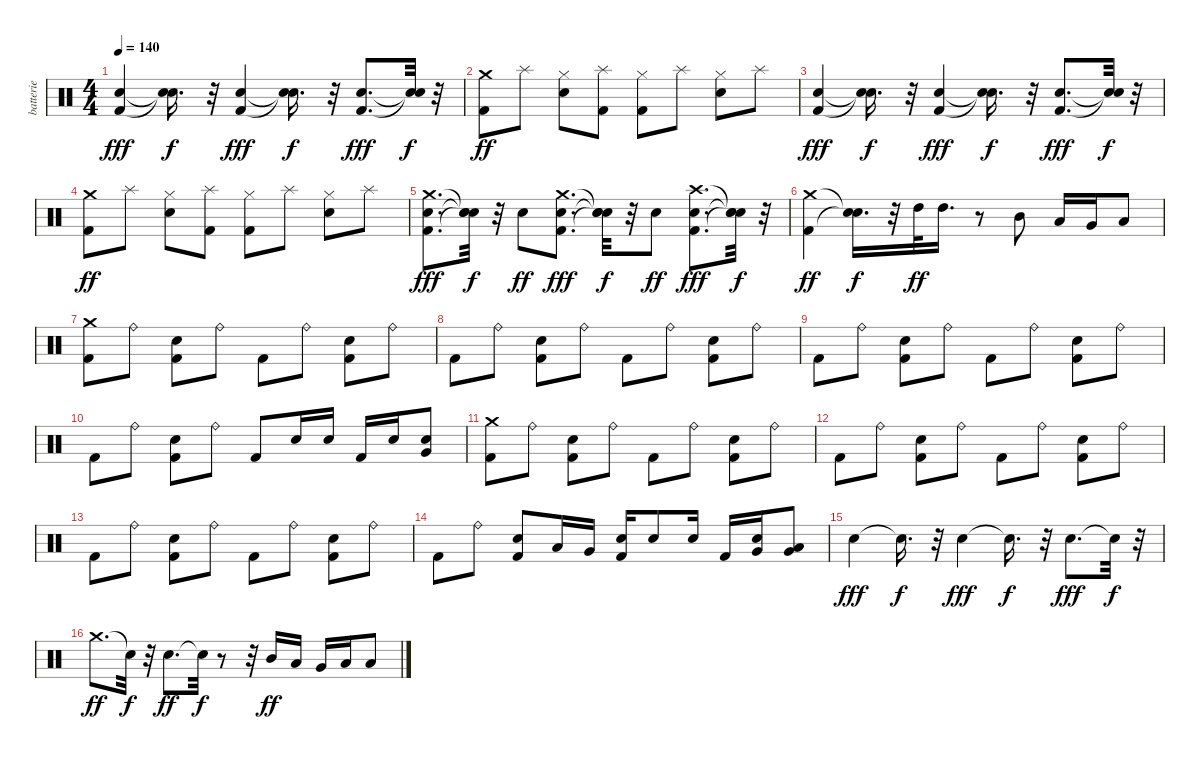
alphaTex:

\track ("batterie" "batterie") {instrument percussion}
\staff {score}
\articulation defaults
\ts (4 4)
\tempo 140
\clef neutral
\ks c
("Kick (hit) 2" "Electric Snare (hit)").4{dy fff} ("Snare (hit)"{t} "Snare (hit)"{t}).16{d dy f} r.32 ("Kick (hit) 2" "Electric Snare (hit)").4{dy fff} ("Snare (hit)"{t} "Snare (hit)"{t}).16{d dy f} r.32 ("Kick (hit) 2" "Electric Snare (hit)").8{d dy fff} ("Snare (hit)"{t} "Snare (hit)"{t}).32{dy f} r.32 |
("Kick (hit) 2" "Crash medium (hit)").8{dy ff} "Splash (hit)".8 ("Electric Snare (hit)" "Hi-Hat (closed)").8 ("Kick (hit) 2" "Splash (hit)").8 ("Kick (hit) 2" "Hi-Hat (closed)").8 "Splash (hit)".8 ("Electric Snare (hit)" "Hi-Hat (closed)").8 "Splash (hit)".8 |
("Kick (hit) 2" "Electric Snare (hit)").4{dy fff} ("Snare (hit)"{t} "Snare (hit)"{t}).16{d dy f} r.32 ("Kick (hit) 2" "Electric Snare (hit)").4{dy fff} ("Snare (hit)"{t} "Snare (hit)"{t}).16{d dy f} r.32 ("Kick (hit) 2" "Electric Snare (hit)").8{d dy fff} ("Snare (hit)"{t} "Snare (hit)"{t}).32{dy f} r.32 |
("Kick (hit) 2" "Crash medium (hit)").8{dy ff} "Splash (hit)".8 ("Electric Snare (hit)" "Hi-Hat (closed)").8 ("Kick (hit) 2" "Splash (hit)").8 ("Kick (hit) 2" "Hi-Hat (closed)").8 "Splash (hit)".8 ("Electric Snare (hit)" "Hi-Hat (closed)").8 "Splash (hit)".8 |
("Kick (hit) 2" "Electric Snare (hit)" "Crash medium (hit)").8{d dy fff} ("Snare (hit)"{t} "Snare (hit)"{t} "Snare (hit)"{t}).32{dy f} r.32 "Electric Snare (hit)".8{dy ff} ("Kick (hit) 2" "Electric Snare (hit)" "Crash medium (hit)").8{d dy fff} ("Snare (hit)"{t} "Snare (hit)"{t} "Snare (hit)"{t}).32{dy f} r.32 "Electric Snare (hit)".8{dy ff} ("Kick (hit) 2" "Electric Snare (hit)" "Crash high (hit)").8{d dy fff} ("Snare (hit)"{t} "Snare (hit)"{t} "Snare (hit)"{t}).32{dy f} r.32 |
("Kick (hit) 2" "Crash medium (hit)").4{dy ff} ("Snare (hit)"{t} "Snare (hit)"{t}).16{d dy f} r.32 "High Tom (hit)".32{dy ff} "High Tom (hit)".16{d} r.8 "Mid Tom (hit)".8 "Low Tom (hit)".16 "Very Low Tom (hit)".16 "Low Floor Tom (hit)".8 |
("Kick (hit) 2" "Crash medium (hit)").8 "Ride (bell)".8 ("Kick (hit) 2" "Electric Snare (hit)").8 "Ride (bell)".8 "Kick (hit) 2".8 "Ride (bell)".8 ("Kick (hit) 2" "Electric Snare (hit)").8 "Ride (bell)".8 |
"Kick (hit) 2".8 "Ride (bell)".8 ("Kick (hit) 2" "Electric Snare (hit)").8 "Ride (bell)".8 "Kick (hit) 2".8 "Ride (bell)".8 ("Kick (hit) 2" "Electric Snare (hit)").8 "Ride (bell)".8 |
"Kick (hit) 2".8 "Ride (bell)".8 ("Kick (hit) 2" "Electric Snare (hit)").8 "Ride (bell)".8 "Kick (hit) 2".8 "Ride (bell)".8 ("Kick (hit) 2" "Electric Snare (hit)").8 "Ride (bell)".8 |
"Kick (hit) 2".8 "Ride (bell)".8 ("Kick (hit) 2" "Electric Snare (hit)").8 "Ride (bell)".8 "Kick (hit) 2".8 "Electric Snare (hit)".16 "Electric Snare (hit)".16 "Kick (hit) 2".16 "Electric Snare (hit)".16 ("Electric Snare (hit)" "Very Low Tom (hit)").8 |
("Kick (hit) 2" "Crash medium (hit)").8 "Ride (bell)".8 ("Kick (hit) 2" "Electric Snare (hit)").8 "Ride (bell)".8 "Kick (hit) 2".8 "Ride (bell)".8 ("Kick (hit) 2" "Electric Snare (hit)").8 "Ride (bell)".8 |
"Kick (hit) 2".8 "Ride (bell)".8 ("Kick (hit) 2" "Electric Snare (hit)").8 "Ride (bell)".8 "Kick (hit) 2".8 "Ride (bell)".8 ("Kick (hit) 2" "Electric Snare (hit)").8 "Ride (bell)".8 |
"Kick (hit) 2".8 "Ride (bell)".8 ("Kick (hit) 2" "Electric Snare (hit)").8 "Ride (bell)".8 "Kick (hit) 2".8 "Ride (bell)".8 ("Kick (hit) 2" "Electric Snare (hit)").8 "Ride (bell)".8 |
"Kick (hit) 2".8 "Ride (bell)".8 ("Kick (hit) 2" "Electric Snare (hit)").8 "Low Tom (hit)".16 "Very Low Tom (hit)".16 ("Kick (hit) 2" "Electric Snare (hit)").16 "Electric Snare (hit)".8 "Electric Snare (hit)".16 "Kick (hit) 2".16 ("Electric Snare (hit)" "Very Low Tom (hit)").16 ("Low Floor Tom (hit)" "Very Low Tom (hit)").8 |
"Electric Snare (hit)".4{dy fff} "Snare (hit)"{t}.16{d dy f} r.32 "Electric Snare (hit)".4{dy fff} "Snare (hit)"{t}.16{d dy f} r.32 "Electric Snare (hit)".8{d dy fff} "Snare (hit)"{t}.32{dy f} r.32 |
"Crash medium (hit)".8{d dy ff} "Snare (hit)"{t}.32{dy f} r.32 "Electric Snare (hit)".8{d dy ff} "Snare (hit)"{t}.32{dy f} r.8 r.32 "Mid Tom (hit)".16{dy ff} "Low Tom (hit)".16 "Very Low Tom (hit)".16 "Low Floor Tom (hit)".16 "Low Floor Tom (hit)".8
